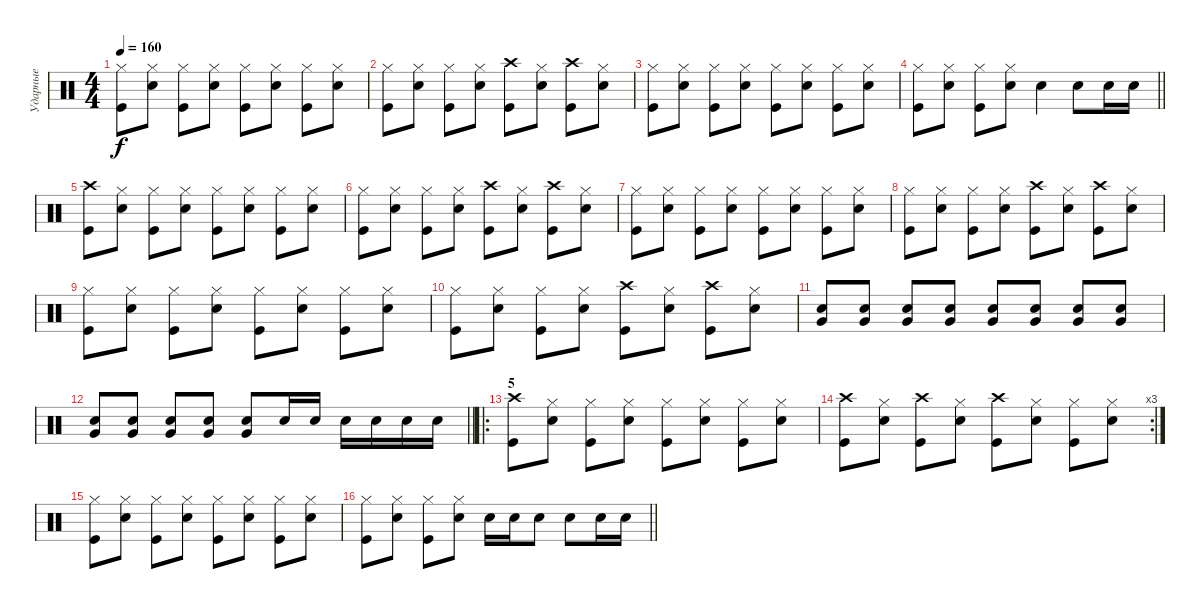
\track ("Ударные" "Ударные") {instrument percussion}
\staff {score}
\articulation defaults
\ts (4 4)
\tempo 160
\clef neutral
\ks c
("Hi-Hat (closed)" "Kick (hit)").8{dy f} ("Hi-Hat (closed)" "Snare (hit) 2").8 ("Hi-Hat (closed)" "Kick (hit)").8 ("Hi-Hat (closed)" "Snare (hit) 2").8 ("Hi-Hat (closed)" "Kick (hit)").8 ("Hi-Hat (closed)" "Snare (hit) 2").8 ("Hi-Hat (closed)" "Kick (hit)").8 ("Hi-Hat (closed)" "Snare (hit) 2").8 |
("Hi-Hat (closed)" "Kick (hit)").8 ("Hi-Hat (closed)" "Snare (hit) 2").8 ("Hi-Hat (closed)" "Kick (hit)").8 ("Hi-Hat (closed)" "Snare (hit) 2").8 ("Crash high (hit)" "Kick (hit)").8 ("Hi-Hat (closed)" "Snare (hit) 2").8 ("Crash high (hit)" "Kick (hit)").8 ("Hi-Hat (closed)" "Snare (hit) 2").8 |
("Hi-Hat (closed)" "Kick (hit)").8 ("Hi-Hat (closed)" "Snare (hit) 2").8 ("Hi-Hat (closed)" "Kick (hit)").8 ("Hi-Hat (closed)" "Snare (hit) 2").8 ("Hi-Hat (closed)" "Kick (hit)").8 ("Hi-Hat (closed)" "Snare (hit) 2").8 ("Hi-Hat (closed)" "Kick (hit)").8 ("Hi-Hat (closed)" "Snare (hit) 2").8 |
\barLineRight lightlight
("Hi-Hat (closed)" "Kick (hit)").8 ("Hi-Hat (closed)" "Snare (hit) 2").8 ("Hi-Hat (closed)" "Kick (hit)").8 ("Hi-Hat (closed)" "Snare (hit) 2").8 "Snare (hit) 2".4 "Snare (hit) 2".8 "Snare (hit) 2".16 "Snare (hit) 2".16 |
("Crash high (hit)" "Kick (hit)").8 ("Hi-Hat (closed)" "Snare (hit) 2").8 ("Hi-Hat (closed)" "Kick (hit)").8 ("Hi-Hat (closed)" "Snare (hit) 2").8 ("Hi-Hat (closed)" "Kick (hit)").8 ("Hi-Hat (closed)" "Snare (hit) 2").8 ("Hi-Hat (closed)" "Kick (hit)").8 ("Hi-Hat (closed)" "Snare (hit) 2").8 |
("Hi-Hat (closed)" "Kick (hit)").8 ("Hi-Hat (closed)" "Snare (hit) 2").8 ("Hi-Hat (closed)" "Kick (hit)").8 ("Hi-Hat (closed)" "Snare (hit) 2").8 ("Crash high (hit)" "Kick (hit)").8 ("Hi-Hat (closed)" "Snare (hit) 2").8 ("Crash high (hit)" "Kick (hit)").8 ("Hi-Hat (closed)" "Snare (hit) 2").8 |
("Hi-Hat (closed)" "Kick (hit)").8 ("Hi-Hat (closed)" "Snare (hit) 2").8 ("Hi-Hat (closed)" "Kick (hit)").8 ("Hi-Hat (closed)" "Snare (hit) 2").8 ("Hi-Hat (closed)" "Kick (hit)").8 ("Hi-Hat (closed)" "Snare (hit) 2").8 ("Hi-Hat (closed)" "Kick (hit)").8 ("Hi-Hat (closed)" "Snare (hit) 2").8 |
("Hi-Hat (closed)" "Kick (hit)").8 ("Hi-Hat (closed)" "Snare (hit) 2").8 ("Hi-Hat (closed)" "Kick (hit)").8 ("Hi-Hat (closed)" "Snare (hit) 2").8 ("Crash high (hit)" "Kick (hit)").8 ("Hi-Hat (closed)" "Snare (hit) 2").8 ("Crash high (hit)" "Kick (hit)").8 ("Hi-Hat (closed)" "Snare (hit) 2").8 |
("Hi-Hat (closed)" "Kick (hit)").8 ("Hi-Hat (closed)" "Snare (hit) 2").8 ("Hi-Hat (closed)" "Kick (hit)").8 ("Hi-Hat (closed)" "Snare (hit) 2").8 ("Hi-Hat (closed)" "Kick (hit)").8 ("Hi-Hat (closed)" "Snare (hit) 2").8 ("Hi-Hat (closed)" "Kick (hit)").8 ("Hi-Hat (closed)" "Snare (hit) 2").8 |
("Hi-Hat (closed)" "Kick (hit)").8 ("Hi-Hat (closed)" "Snare (hit) 2").8 ("Hi-Hat (closed)" "Kick (hit)").8 ("Hi-Hat (closed)" "Snare (hit) 2").8 ("Crash high (hit)" "Kick (hit)").8 ("Hi-Hat (closed)" "Snare (hit) 2").8 ("Crash high (hit)" "Kick (hit)").8 ("Hi-Hat (closed)" "Snare (hit) 2").8 |
("Very Low Tom (hit)" "Snare (hit) 2").8 ("Very Low Tom (hit)" "Snare (hit) 2").8 ("Very Low Tom (hit)" "Snare (hit) 2").8 ("Very Low Tom (hit)" "Snare (hit) 2").8 ("Very Low Tom (hit)" "Snare (hit) 2").8 ("Very Low Tom (hit)" "Snare (hit) 2").8 ("Very Low Tom (hit)" "Snare (hit) 2").8 ("Very Low Tom (hit)" "Snare (hit) 2").8 |
\barLineRight lightlight
("Very Low Tom (hit)" "Snare (hit) 2").8 ("Very Low Tom (hit)" "Snare (hit) 2").8 ("Very Low Tom (hit)" "Snare (hit) 2").8 ("Very Low Tom (hit)" "Snare (hit) 2").8 ("Very Low Tom (hit)" "Snare (hit) 2").8 "Snare (hit) 2".16 "Snare (hit) 2".16 "Snare (hit) 2".16 "Snare (hit) 2".16 "Snare (hit) 2".16 "Snare (hit) 2".16 |
\ro
\section ("" "5")
("Crash high (hit)" "Kick (hit)").8 ("Hi-Hat (closed)" "Snare (hit) 2").8 ("Hi-Hat (closed)" "Kick (hit)").8 ("Hi-Hat (closed)" "Snare (hit) 2").8 ("Hi-Hat (closed)" "Kick (hit)").8 ("Hi-Hat (closed)" "Snare (hit) 2").8 ("Hi-Hat (closed)" "Kick (hit)").8 ("Hi-Hat (closed)" "Snare (hit) 2").8 |
\rc 3
("Crash high (hit)" "Kick (hit)").8 ("Hi-Hat (closed)" "Snare (hit) 2").8 ("Crash high (hit)" "Kick (hit)").8 ("Hi-Hat (closed)" "Snare (hit) 2").8 ("Crash high (hit)" "Kick (hit)").8 ("Hi-Hat (closed)" "Snare (hit) 2").8 ("Hi-Hat (closed)" "Kick (hit)").8 ("Hi-Hat (closed)" "Snare (hit) 2").8 |
("Hi-Hat (closed)" "Kick (hit)").8 ("Hi-Hat (closed)" "Snare (hit) 2").8 ("Hi-Hat (closed)" "Kick (hit)").8 ("Hi-Hat (closed)" "Snare (hit) 2").8 ("Hi-Hat (closed)" "Kick (hit)").8 ("Hi-Hat (closed)" "Snare (hit) 2").8 ("Hi-Hat (closed)" "Kick (hit)").8 ("Hi-Hat (closed)" "Snare (hit) 2").8 |
\barLineRight lightlight
("Hi-Hat (closed)" "Kick (hit)").8 ("Hi-Hat (closed)" "Snare (hit) 2").8 ("Hi-Hat (closed)" "Kick (hit)").8 ("Hi-Hat (closed)" "Snare (hit) 2").8 "Snare (hit) 2".16 "Snare (hit) 2".16 "Snare (hit) 2".8 "Snare (hit) 2".8 "Snare (hit) 2".16 "Snare (hit) 2".16
